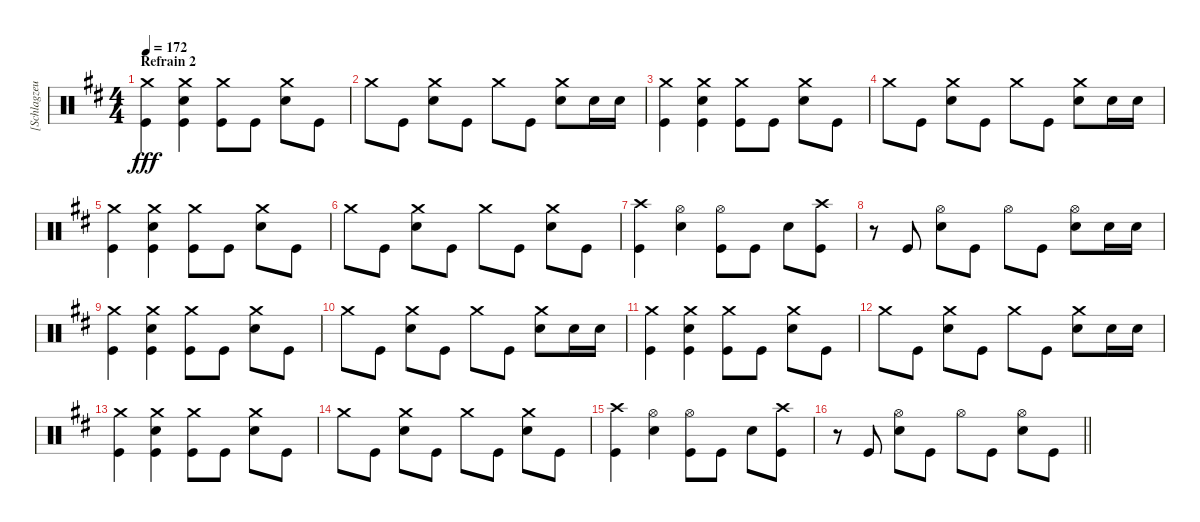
\track ("[Schlagzeug]" "[Schlagzeu") {instrument percussion}
\staff {score}
\articulation defaults
\ts (4 4)
\section ("" "Refrain 2")
\tempo 172
\clef neutral
\ks d
("Crash medium (hit)" "Kick (hit)").4{dy fff} ("Crash medium (hit)" "Electric Snare (hit)" "Kick (hit)").4 ("Crash medium (hit)" "Kick (hit)").8 "Kick (hit)".8 ("Crash medium (hit)" "Electric Snare (hit)").8 "Kick (hit)".8 |
"Crash medium (hit)".8 "Kick (hit)".8 ("Crash medium (hit)" "Electric Snare (hit)").8 "Kick (hit)".8 "Crash medium (hit)".8 "Kick (hit)".8 ("Crash medium (hit)" "Electric Snare (hit)").8 "Electric Snare (hit)".16 "Electric Snare (hit)".16 |
("Crash medium (hit)" "Kick (hit)").4 ("Crash medium (hit)" "Electric Snare (hit)" "Kick (hit)").4 ("Crash medium (hit)" "Kick (hit)").8 "Kick (hit)".8 ("Crash medium (hit)" "Electric Snare (hit)").8 "Kick (hit)".8 |
"Crash medium (hit)".8 "Kick (hit)".8 ("Crash medium (hit)" "Electric Snare (hit)").8 "Kick (hit)".8 "Crash medium (hit)".8 "Kick (hit)".8 ("Crash medium (hit)" "Electric Snare (hit)").8 "Electric Snare (hit)".16 "Electric Snare (hit)".16 |
("Crash medium (hit)" "Kick (hit)").4 ("Crash medium (hit)" "Electric Snare (hit)" "Kick (hit)").4 ("Crash medium (hit)" "Kick (hit)").8 "Kick (hit)".8 ("Crash medium (hit)" "Electric Snare (hit)").8 "Kick (hit)".8 |
"Crash medium (hit)".8 "Kick (hit)".8 ("Crash medium (hit)" "Electric Snare (hit)").8 "Kick (hit)".8 "Crash medium (hit)".8 "Kick (hit)".8 ("Crash medium (hit)" "Electric Snare (hit)").8 "Kick (hit)".8 |
("Crash high (hit)" "Kick (hit)").4 ("Hi-Hat (open)" "Electric Snare (hit)").4 ("Hi-Hat (open)" "Kick (hit)").8 "Kick (hit)".8 "Electric Snare (hit)".8 ("Crash high (hit)" "Kick (hit)").8 |
r.8 "Kick (hit)".8 ("Hi-Hat (open)" "Electric Snare (hit)").8 "Kick (hit)".8 "Hi-Hat (open)".8 "Kick (hit)".8 ("Hi-Hat (open)" "Electric Snare (hit)").8 "Electric Snare (hit)".16 "Electric Snare (hit)".16 |
("Crash medium (hit)" "Kick (hit)").4 ("Crash medium (hit)" "Electric Snare (hit)" "Kick (hit)").4 ("Crash medium (hit)" "Kick (hit)").8 "Kick (hit)".8 ("Crash medium (hit)" "Electric Snare (hit)").8 "Kick (hit)".8 |
"Crash medium (hit)".8 "Kick (hit)".8 ("Crash medium (hit)" "Electric Snare (hit)").8 "Kick (hit)".8 "Crash medium (hit)".8 "Kick (hit)".8 ("Crash medium (hit)" "Electric Snare (hit)").8 "Electric Snare (hit)".16 "Electric Snare (hit)".16 |
("Crash medium (hit)" "Kick (hit)").4 ("Crash medium (hit)" "Electric Snare (hit)" "Kick (hit)").4 ("Crash medium (hit)" "Kick (hit)").8 "Kick (hit)".8 ("Crash medium (hit)" "Electric Snare (hit)").8 "Kick (hit)".8 |
"Crash medium (hit)".8 "Kick (hit)".8 ("Crash medium (hit)" "Electric Snare (hit)").8 "Kick (hit)".8 "Crash medium (hit)".8 "Kick (hit)".8 ("Crash medium (hit)" "Electric Snare (hit)").8 "Electric Snare (hit)".16 "Electric Snare (hit)".16 |
("Crash medium (hit)" "Kick (hit)").4 ("Crash medium (hit)" "Electric Snare (hit)" "Kick (hit)").4 ("Crash medium (hit)" "Kick (hit)").8 "Kick (hit)".8 ("Crash medium (hit)" "Electric Snare (hit)").8 "Kick (hit)".8 |
"Crash medium (hit)".8 "Kick (hit)".8 ("Crash medium (hit)" "Electric Snare (hit)").8 "Kick (hit)".8 "Crash medium (hit)".8 "Kick (hit)".8 ("Crash medium (hit)" "Electric Snare (hit)").8 "Kick (hit)".8 |
("Crash high (hit)" "Kick (hit)").4 ("Hi-Hat (open)" "Electric Snare (hit)").4 ("Hi-Hat (open)" "Kick (hit)").8 "Kick (hit)".8 "Electric Snare (hit)".8 ("Crash high (hit)" "Kick (hit)").8 |
\barLineRight lightlight
r.8 "Kick (hit)".8 ("Hi-Hat (open)" "Electric Snare (hit)").8 "Kick (hit)".8 "Hi-Hat (open)".8 "Kick (hit)".8 ("Hi-Hat (open)" "Electric Snare (hit)").8 "Kick (hit)".8
